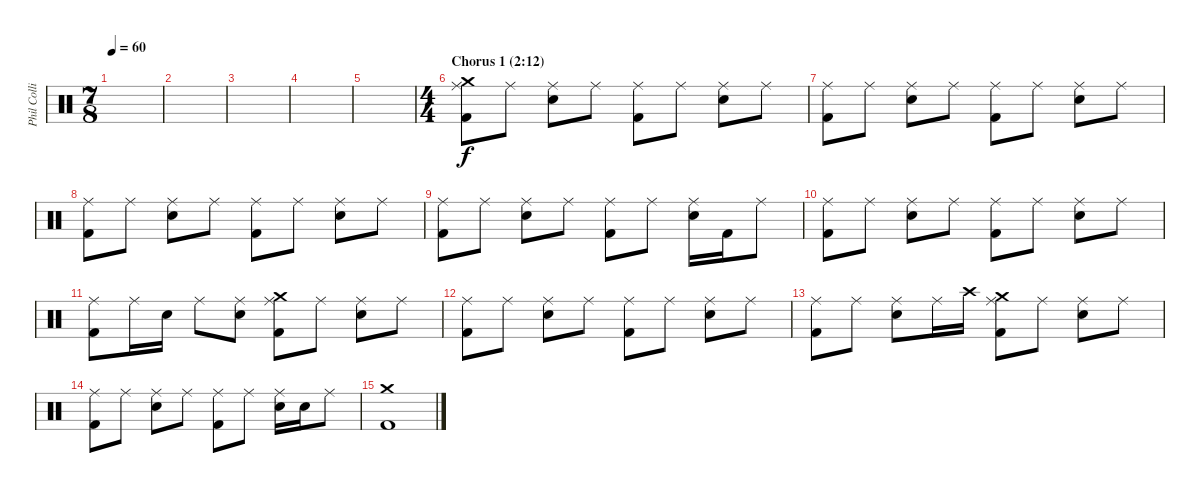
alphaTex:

\track ("Phil Collins (drums)" "Phil Colli") {instrument percussion}
\staff {score}
\articulation defaults
\ts (7 8)
\tempo 60
\clef neutral
\ks c
|
|
|
|
|
\ts (4 4)
\section ("" "Chorus 1 (2:12)")
("Ride (middle)" "Crash medium (hit)" "Kick (hit) 2").8 "Ride (middle)".8 ("Ride (middle)" "Electric Snare (hit)").8 "Ride (middle)".8 ("Ride (middle)" "Kick (hit) 2").8 "Ride (middle)".8 ("Ride (middle)" "Electric Snare (hit)").8 "Ride (middle)".8 |
("Ride (middle)" "Kick (hit) 2").8 "Ride (middle)".8 ("Ride (middle)" "Electric Snare (hit)").8 "Ride (middle)".8 ("Ride (middle)" "Kick (hit) 2").8 "Ride (middle)".8 ("Ride (middle)" "Electric Snare (hit)").8 "Ride (middle)".8 |
("Ride (middle)" "Kick (hit) 2").8 "Ride (middle)".8 ("Ride (middle)" "Electric Snare (hit)").8 "Ride (middle)".8 ("Ride (middle)" "Kick (hit) 2").8 "Ride (middle)".8 ("Ride (middle)" "Electric Snare (hit)").8 "Ride (middle)".8 |
("Ride (middle)" "Kick (hit) 2").8 "Ride (middle)".8 ("Ride (middle)" "Electric Snare (hit)").8 "Ride (middle)".8 ("Ride (middle)" "Kick (hit) 2").8 "Ride (middle)".8 ("Ride (middle)" "Electric Snare (hit)").16 "Kick (hit) 2".16 "Ride (middle)".8 |
("Ride (middle)" "Kick (hit) 2").8 "Ride (middle)".8 ("Ride (middle)" "Electric Snare (hit)").8 "Ride (middle)".8 ("Ride (middle)" "Kick (hit) 2").8 "Ride (middle)".8 ("Ride (middle)" "Electric Snare (hit)").8 "Ride (middle)".8 |
("Ride (middle)" "Kick (hit) 2").8 "Ride (middle)".16 "Electric Snare (hit)".16 "Ride (middle)".8 ("Ride (middle)" "Electric Snare (hit)").8 ("Ride (middle)" "Crash medium (hit)" "Kick (hit) 2").8 "Ride (middle)".8 ("Ride (middle)" "Electric Snare (hit)").8 "Ride (middle)".8 |
("Ride (middle)" "Kick (hit) 2").8 "Ride (middle)".8 ("Ride (middle)" "Electric Snare (hit)").8 "Ride (middle)".8 ("Ride (middle)" "Kick (hit) 2").8 "Ride (middle)".8 ("Ride (middle)" "Electric Snare (hit)").8 "Ride (middle)".8 |
("Ride (middle)" "Kick (hit) 2").8 "Ride (middle)".8 ("Ride (middle)" "Electric Snare (hit)").8 "Ride (middle)".16 "Crash high (hit)".16 ("Ride (middle)" "Crash medium (hit)" "Kick (hit) 2").8 "Ride (middle)".8 ("Ride (middle)" "Electric Snare (hit)").8 "Ride (middle)".8 |
("Ride (middle)" "Kick (hit) 2").8 "Ride (middle)".8 ("Ride (middle)" "Electric Snare (hit)").8 "Ride (middle)".8 ("Ride (middle)" "Kick (hit) 2").8 "Ride (middle)".8 ("Ride (middle)" "Electric Snare (hit)").16 "Electric Snare (hit)".16 "Ride (middle)".8 |
("Crash medium (hit)" "Kick (hit) 2").1
